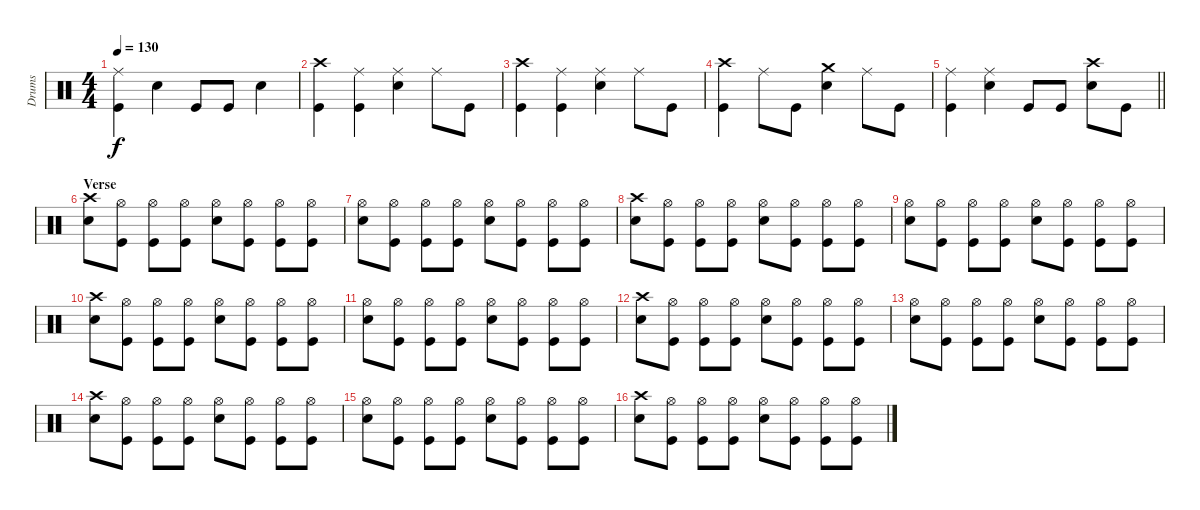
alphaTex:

\track ("Drums" "Drums") {instrument percussion}
\staff {score}
\articulation defaults
\ts (4 4)
\tempo 130
\clef neutral
\ks c
("Ride (middle)" "Kick (hit)").4{dy f} "Snare (hit) 2".4 "Kick (hit)".8 "Kick (hit)".8 "Snare (hit) 2".4 |
("Crash high (hit)" "Kick (hit)").4 ("Ride (middle)" "Kick (hit)").4 ("Ride (middle)" "Snare (hit) 2").4 "Ride (middle)".8 "Kick (hit)".8 |
("Crash high (hit)" "Kick (hit)").4 ("Ride (middle)" "Kick (hit)").4 ("Ride (middle)" "Snare (hit) 2").4 "Ride (middle)".8 "Kick (hit)".8 |
("Crash high (hit)" "Kick (hit)").4 "Ride (middle)".8 "Kick (hit)".8 ("Crash medium (hit)" "Snare (hit) 2").4 "Ride (middle)".8 "Kick (hit)".8 |
\barLineRight lightlight
("Ride (middle)" "Kick (hit)").4 ("Ride (middle)" "Snare (hit) 2").4 "Kick (hit)".8 "Kick (hit)".8 ("Crash high (hit)" "Snare (hit) 2").8 "Kick (hit)".8 |
\section ("" "Verse")
("Crash high (hit)" "Snare (hit) 2").8 ("Hi-Hat (open)" "Kick (hit)").8 ("Hi-Hat (open)" "Kick (hit)").8 ("Hi-Hat (open)" "Kick (hit)").8 ("Hi-Hat (open)" "Snare (hit) 2").8 ("Hi-Hat (open)" "Kick (hit)").8 ("Hi-Hat (open)" "Kick (hit)").8 ("Hi-Hat (open)" "Kick (hit)").8 |
("Hi-Hat (open)" "Snare (hit) 2").8 ("Hi-Hat (open)" "Kick (hit)").8 ("Hi-Hat (open)" "Kick (hit)").8 ("Hi-Hat (open)" "Kick (hit)").8 ("Hi-Hat (open)" "Snare (hit) 2").8 ("Hi-Hat (open)" "Kick (hit)").8 ("Hi-Hat (open)" "Kick (hit)").8 ("Hi-Hat (open)" "Kick (hit)").8 |
("Crash high (hit)" "Snare (hit) 2").8 ("Hi-Hat (open)" "Kick (hit)").8 ("Hi-Hat (open)" "Kick (hit)").8 ("Hi-Hat (open)" "Kick (hit)").8 ("Hi-Hat (open)" "Snare (hit) 2").8 ("Hi-Hat (open)" "Kick (hit)").8 ("Hi-Hat (open)" "Kick (hit)").8 ("Hi-Hat (open)" "Kick (hit)").8 |
("Hi-Hat (open)" "Snare (hit) 2").8 ("Hi-Hat (open)" "Kick (hit)").8 ("Hi-Hat (open)" "Kick (hit)").8 ("Hi-Hat (open)" "Kick (hit)").8 ("Hi-Hat (open)" "Snare (hit) 2").8 ("Hi-Hat (open)" "Kick (hit)").8 ("Hi-Hat (open)" "Kick (hit)").8 ("Hi-Hat (open)" "Kick (hit)").8 |
("Crash high (hit)" "Snare (hit) 2").8 ("Hi-Hat (open)" "Kick (hit)").8 ("Hi-Hat (open)" "Kick (hit)").8 ("Hi-Hat (open)" "Kick (hit)").8 ("Hi-Hat (open)" "Snare (hit) 2").8 ("Hi-Hat (open)" "Kick (hit)").8 ("Hi-Hat (open)" "Kick (hit)").8 ("Hi-Hat (open)" "Kick (hit)").8 |
("Hi-Hat (open)" "Snare (hit) 2").8 ("Hi-Hat (open)" "Kick (hit)").8 ("Hi-Hat (open)" "Kick (hit)").8 ("Hi-Hat (open)" "Kick (hit)").8 ("Hi-Hat (open)" "Snare (hit) 2").8 ("Hi-Hat (open)" "Kick (hit)").8 ("Hi-Hat (open)" "Kick (hit)").8 ("Hi-Hat (open)" "Kick (hit)").8 |
("Crash high (hit)" "Snare (hit) 2").8 ("Hi-Hat (open)" "Kick (hit)").8 ("Hi-Hat (open)" "Kick (hit)").8 ("Hi-Hat (open)" "Kick (hit)").8 ("Hi-Hat (open)" "Snare (hit) 2").8 ("Hi-Hat (open)" "Kick (hit)").8 ("Hi-Hat (open)" "Kick (hit)").8 ("Hi-Hat (open)" "Kick (hit)").8 |
("Hi-Hat (open)" "Snare (hit) 2").8 ("Hi-Hat (open)" "Kick (hit)").8 ("Hi-Hat (open)" "Kick (hit)").8 ("Hi-Hat (open)" "Kick (hit)").8 ("Hi-Hat (open)" "Snare (hit) 2").8 ("Hi-Hat (open)" "Kick (hit)").8 ("Hi-Hat (open)" "Kick (hit)").8 ("Hi-Hat (open)" "Kick (hit)").8 |
("Crash high (hit)" "Snare (hit) 2").8 ("Hi-Hat (open)" "Kick (hit)").8 ("Hi-Hat (open)" "Kick (hit)").8 ("Hi-Hat (open)" "Kick (hit)").8 ("Hi-Hat (open)" "Snare (hit) 2").8 ("Hi-Hat (open)" "Kick (hit)").8 ("Hi-Hat (open)" "Kick (hit)").8 ("Hi-Hat (open)" "Kick (hit)").8 |
("Hi-Hat (open)" "Snare (hit) 2").8 ("Hi-Hat (open)" "Kick (hit)").8 ("Hi-Hat (open)" "Kick (hit)").8 ("Hi-Hat (open)" "Kick (hit)").8 ("Hi-Hat (open)" "Snare (hit) 2").8 ("Hi-Hat (open)" "Kick (hit)").8 ("Hi-Hat (open)" "Kick (hit)").8 ("Hi-Hat (open)" "Kick (hit)").8 |
("Crash high (hit)" "Snare (hit) 2").8 ("Hi-Hat (open)" "Kick (hit)").8 ("Hi-Hat (open)" "Kick (hit)").8 ("Hi-Hat (open)" "Kick (hit)").8 ("Hi-Hat (open)" "Snare (hit) 2").8 ("Hi-Hat (open)" "Kick (hit)").8 ("Hi-Hat (open)" "Kick (hit)").8 ("Hi-Hat (open)" "Kick (hit)").8
